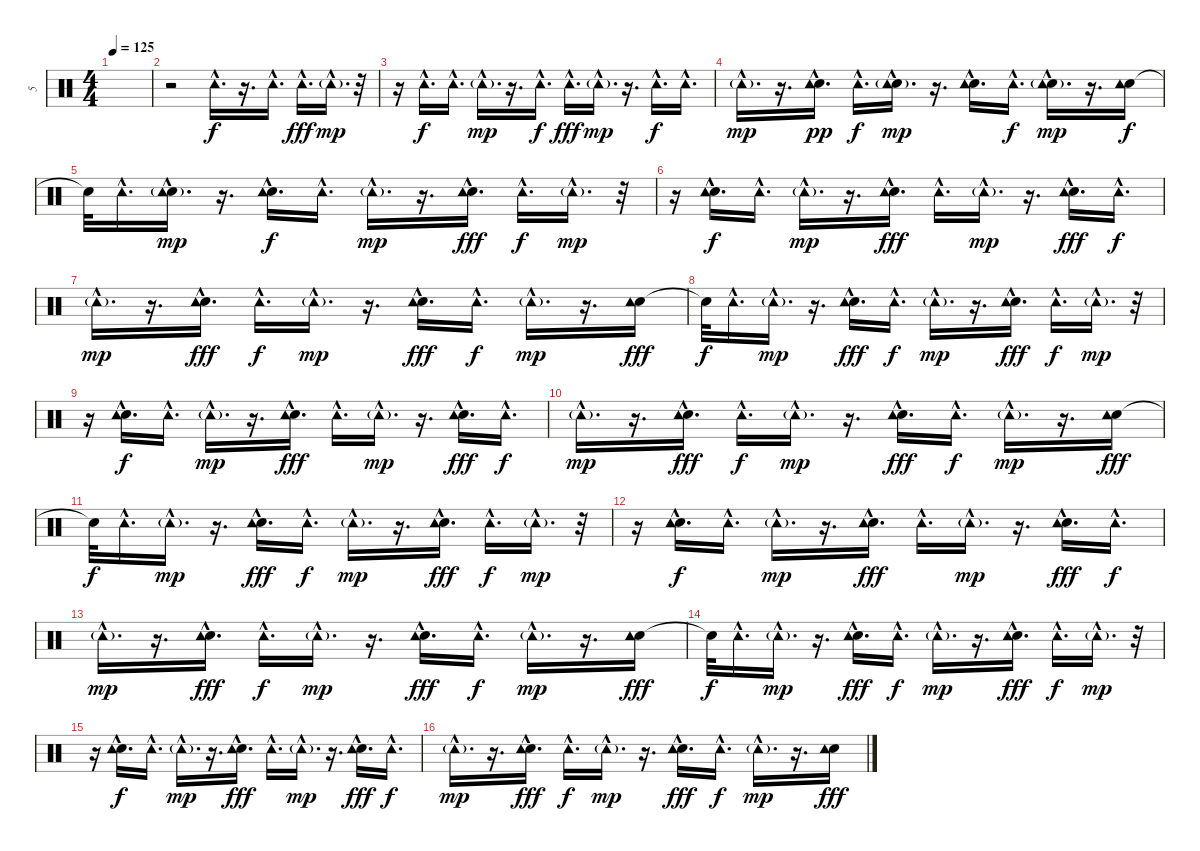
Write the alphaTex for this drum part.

\track ("5" "5") {instrument percussion}
\staff {score}
\articulation defaults
\ts (4 4)
\tempo 125
\clef neutral
\ks c
|
r.2 "Tambourine (hit)"{hac}.16{d dy f} r.16{d} "Tambourine (hit)"{hac}.16{d} "Tambourine (hit)"{hac}.16{d dy fff} "Tambourine (hit)"{g hac}.16{d dy mp} r.32 |
r.16 "Tambourine (hit)"{hac}.16{d dy f} "Tambourine (hit)"{hac}.16{d} "Tambourine (hit)"{g hac}.16{d dy mp} r.16{d} "Tambourine (hit)"{hac}.16{d dy f} "Tambourine (hit)"{hac}.16{d dy fff} "Tambourine (hit)"{g hac}.16{d dy mp} r.16{d} "Tambourine (hit)"{hac}.16{d dy f} "Tambourine (hit)"{hac}.16{d} |
"Tambourine (hit)"{g hac}.16{d dy mp} r.16{d} ("Electric Snare (hit)"{hac} "Tambourine (hit)"{hac}).16{d dy pp} "Tambourine (hit)"{hac}.16{d dy f} ("Electric Snare (hit)"{hac} "Tambourine (hit)"{g hac}).16{d dy mp} r.16{d} ("Electric Snare (hit)"{hac} "Tambourine (hit)"{hac}).16{d} "Tambourine (hit)"{hac}.16{d dy f} ("Electric Snare (hit)"{hac} "Tambourine (hit)"{g hac}).16{d dy mp} r.16{d} ("Electric Snare (hit)" "Tambourine (hit)").16{dy f} |
"Snare (hit)"{t}.32 "Tambourine (hit)"{hac}.16{d} ("Electric Snare (hit)"{hac} "Tambourine (hit)"{g hac}).16{d dy mp} r.16{d} ("Electric Snare (hit)"{hac} "Tambourine (hit)"{hac}).16{d dy f} "Tambourine (hit)"{hac}.16{d} "Tambourine (hit)"{g hac}.16{d dy mp} r.16{d} ("Electric Snare (hit)"{hac} "Tambourine (hit)"{hac}).16{d dy fff} "Tambourine (hit)"{hac}.16{d dy f} "Tambourine (hit)"{g hac}.16{d dy mp} r.32 |
r.16 ("Electric Snare (hit)"{hac} "Tambourine (hit)"{hac}).16{d dy f} "Tambourine (hit)"{hac}.16{d} "Tambourine (hit)"{g hac}.16{d dy mp} r.16{d} ("Electric Snare (hit)"{hac} "Tambourine (hit)"{hac}).16{d dy fff} "Tambourine (hit)"{hac}.16{d} "Tambourine (hit)"{g hac}.16{d dy mp} r.16{d} ("Electric Snare (hit)"{hac} "Tambourine (hit)"{hac}).16{d dy fff} "Tambourine (hit)"{hac}.16{d dy f} |
"Tambourine (hit)"{g hac}.16{d dy mp} r.16{d} ("Electric Snare (hit)"{hac} "Tambourine (hit)"{hac}).16{d dy fff} "Tambourine (hit)"{hac}.16{d dy f} "Tambourine (hit)"{g hac}.16{d dy mp} r.16{d} ("Electric Snare (hit)"{hac} "Tambourine (hit)"{hac}).16{d dy fff} "Tambourine (hit)"{hac}.16{d dy f} "Tambourine (hit)"{g hac}.16{d dy mp} r.16{d} ("Electric Snare (hit)" "Tambourine (hit)").16{dy fff} |
"Snare (hit)"{t}.32{dy f} "Tambourine (hit)"{hac}.16{d} "Tambourine (hit)"{g hac}.16{d dy mp} r.16{d} ("Electric Snare (hit)"{hac} "Tambourine (hit)"{hac}).16{d dy fff} "Tambourine (hit)"{hac}.16{d dy f} "Tambourine (hit)"{g hac}.16{d dy mp} r.16{d} ("Electric Snare (hit)"{hac} "Tambourine (hit)"{hac}).16{d dy fff} "Tambourine (hit)"{hac}.16{d dy f} "Tambourine (hit)"{g hac}.16{d dy mp} r.32 |
r.16 ("Electric Snare (hit)"{hac} "Tambourine (hit)"{hac}).16{d dy f} "Tambourine (hit)"{hac}.16{d} "Tambourine (hit)"{g hac}.16{d dy mp} r.16{d} ("Electric Snare (hit)"{hac} "Tambourine (hit)"{hac}).16{d dy fff} "Tambourine (hit)"{hac}.16{d} "Tambourine (hit)"{g hac}.16{d dy mp} r.16{d} ("Electric Snare (hit)"{hac} "Tambourine (hit)"{hac}).16{d dy fff} "Tambourine (hit)"{hac}.16{d dy f} |
"Tambourine (hit)"{g hac}.16{d dy mp} r.16{d} ("Electric Snare (hit)"{hac} "Tambourine (hit)"{hac}).16{d dy fff} "Tambourine (hit)"{hac}.16{d dy f} "Tambourine (hit)"{g hac}.16{d dy mp} r.16{d} ("Electric Snare (hit)"{hac} "Tambourine (hit)"{hac}).16{d dy fff} "Tambourine (hit)"{hac}.16{d dy f} "Tambourine (hit)"{g hac}.16{d dy mp} r.16{d} ("Electric Snare (hit)" "Tambourine (hit)").16{dy fff} |
"Snare (hit)"{t}.32{dy f} "Tambourine (hit)"{hac}.16{d} "Tambourine (hit)"{g hac}.16{d dy mp} r.16{d} ("Electric Snare (hit)"{hac} "Tambourine (hit)"{hac}).16{d dy fff} "Tambourine (hit)"{hac}.16{d dy f} "Tambourine (hit)"{g hac}.16{d dy mp} r.16{d} ("Electric Snare (hit)"{hac} "Tambourine (hit)"{hac}).16{d dy fff} "Tambourine (hit)"{hac}.16{d dy f} "Tambourine (hit)"{g hac}.16{d dy mp} r.32 |
r.16 ("Electric Snare (hit)"{hac} "Tambourine (hit)"{hac}).16{d dy f} "Tambourine (hit)"{hac}.16{d} "Tambourine (hit)"{g hac}.16{d dy mp} r.16{d} ("Electric Snare (hit)"{hac} "Tambourine (hit)"{hac}).16{d dy fff} "Tambourine (hit)"{hac}.16{d} "Tambourine (hit)"{g hac}.16{d dy mp} r.16{d} ("Electric Snare (hit)"{hac} "Tambourine (hit)"{hac}).16{d dy fff} "Tambourine (hit)"{hac}.16{d dy f} |
"Tambourine (hit)"{g hac}.16{d dy mp} r.16{d} ("Electric Snare (hit)"{hac} "Tambourine (hit)"{hac}).16{d dy fff} "Tambourine (hit)"{hac}.16{d dy f} "Tambourine (hit)"{g hac}.16{d dy mp} r.16{d} ("Electric Snare (hit)"{hac} "Tambourine (hit)"{hac}).16{d dy fff} "Tambourine (hit)"{hac}.16{d dy f} "Tambourine (hit)"{g hac}.16{d dy mp} r.16{d} ("Electric Snare (hit)" "Tambourine (hit)").16{dy fff} |
"Snare (hit)"{t}.32{dy f} "Tambourine (hit)"{hac}.16{d} "Tambourine (hit)"{g hac}.16{d dy mp} r.16{d} ("Electric Snare (hit)"{hac} "Tambourine (hit)"{hac}).16{d dy fff} "Tambourine (hit)"{hac}.16{d dy f} "Tambourine (hit)"{g hac}.16{d dy mp} r.16{d} ("Electric Snare (hit)"{hac} "Tambourine (hit)"{hac}).16{d dy fff} "Tambourine (hit)"{hac}.16{d dy f} "Tambourine (hit)"{g hac}.16{d dy mp} r.32 |
r.16 ("Electric Snare (hit)"{hac} "Tambourine (hit)"{hac}).16{d dy f} "Tambourine (hit)"{hac}.16{d} "Tambourine (hit)"{g hac}.16{d dy mp} r.16{d} ("Electric Snare (hit)"{hac} "Tambourine (hit)"{hac}).16{d dy fff} "Tambourine (hit)"{hac}.16{d} "Tambourine (hit)"{g hac}.16{d dy mp} r.16{d} ("Electric Snare (hit)"{hac} "Tambourine (hit)"{hac}).16{d dy fff} "Tambourine (hit)"{hac}.16{d dy f} |
"Tambourine (hit)"{g hac}.16{d dy mp} r.16{d} ("Electric Snare (hit)"{hac} "Tambourine (hit)"{hac}).16{d dy fff} "Tambourine (hit)"{hac}.16{d dy f} "Tambourine (hit)"{g hac}.16{d dy mp} r.16{d} ("Electric Snare (hit)"{hac} "Tambourine (hit)"{hac}).16{d dy fff} "Tambourine (hit)"{hac}.16{d dy f} "Tambourine (hit)"{g hac}.16{d dy mp} r.16{d} ("Electric Snare (hit)" "Tambourine (hit)").16{dy fff}
